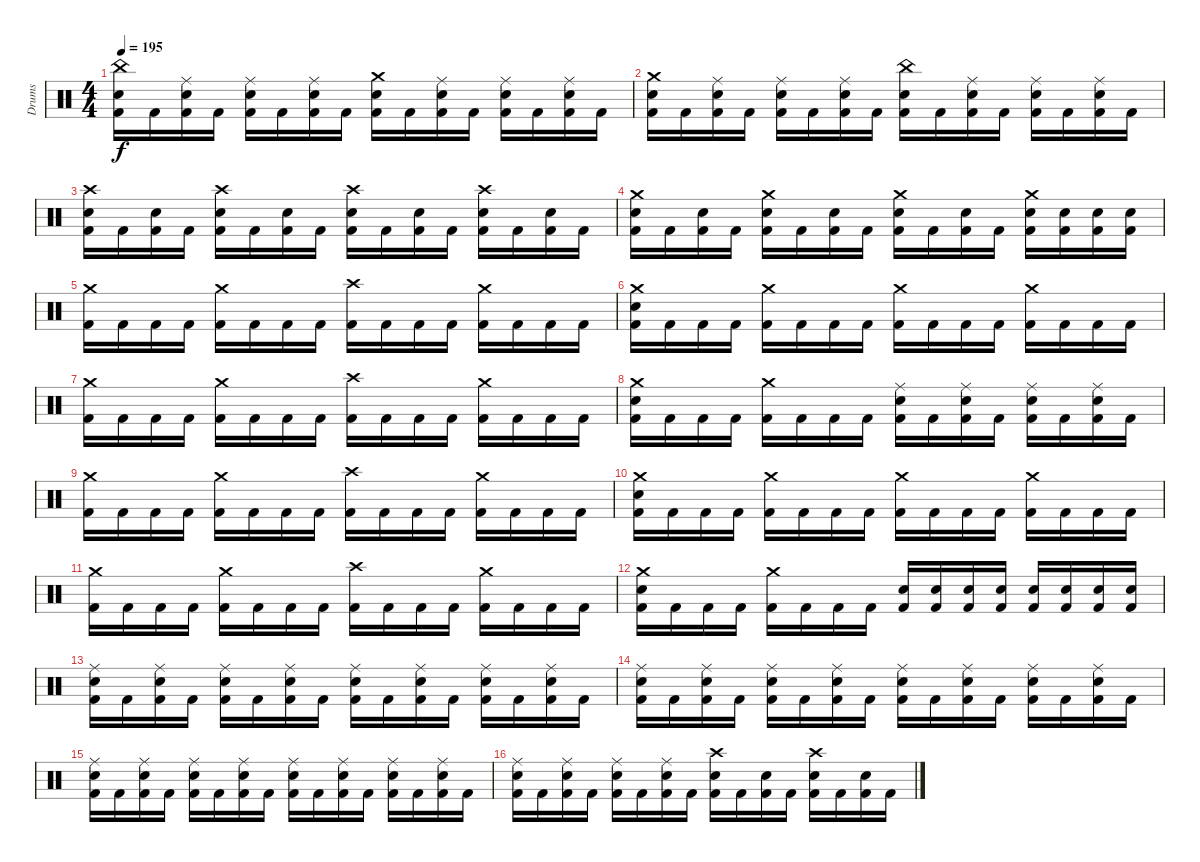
\track ("Drums" "Drums") {instrument percussion}
\staff {score}
\articulation defaults
\ts (4 4)
\tempo 195
\clef neutral
\ks c
("China (hit)" "Kick (hit) 2" "Electric Snare (hit)").16{dy f} "Kick (hit) 2".16 ("Ride (middle)" "Kick (hit) 2" "Electric Snare (hit)").16 "Kick (hit) 2".16 ("Ride (middle)" "Kick (hit) 2" "Electric Snare (hit)").16 "Kick (hit) 2".16 ("Ride (middle)" "Kick (hit) 2" "Electric Snare (hit)").16 "Kick (hit) 2".16 ("Crash medium (hit)" "Kick (hit) 2" "Electric Snare (hit)").16 "Kick (hit) 2".16 ("Ride (middle)" "Kick (hit) 2" "Electric Snare (hit)").16 "Kick (hit) 2".16 ("Ride (middle)" "Kick (hit) 2" "Electric Snare (hit)").16 "Kick (hit) 2".16 ("Ride (middle)" "Kick (hit) 2" "Electric Snare (hit)").16 "Kick (hit) 2".16 |
("Crash medium (hit)" "Kick (hit) 2" "Electric Snare (hit)").16 "Kick (hit) 2".16 ("Ride (middle)" "Kick (hit) 2" "Electric Snare (hit)").16 "Kick (hit) 2".16 ("Ride (middle)" "Kick (hit) 2" "Electric Snare (hit)").16 "Kick (hit) 2".16 ("Ride (middle)" "Kick (hit) 2" "Electric Snare (hit)").16 "Kick (hit) 2".16 ("China (hit)" "Kick (hit) 2" "Electric Snare (hit)").16 "Kick (hit) 2".16 ("Ride (middle)" "Kick (hit) 2" "Electric Snare (hit)").16 "Kick (hit) 2".16 ("Ride (middle)" "Kick (hit) 2" "Electric Snare (hit)").16 "Kick (hit) 2".16 ("Ride (middle)" "Kick (hit) 2" "Electric Snare (hit)").16 "Kick (hit) 2".16 |
("Crash high (hit)" "Kick (hit) 2" "Electric Snare (hit)").16 "Kick (hit) 2".16 ("Kick (hit) 2" "Electric Snare (hit)").16 "Kick (hit) 2".16 ("Crash high (hit)" "Kick (hit) 2" "Electric Snare (hit)").16 "Kick (hit) 2".16 ("Kick (hit) 2" "Electric Snare (hit)").16 "Kick (hit) 2".16 ("Crash high (hit)" "Kick (hit) 2" "Electric Snare (hit)").16 "Kick (hit) 2".16 ("Kick (hit) 2" "Electric Snare (hit)").16 "Kick (hit) 2".16 ("Crash high (hit)" "Kick (hit) 2" "Electric Snare (hit)").16 "Kick (hit) 2".16 ("Kick (hit) 2" "Electric Snare (hit)").16 "Kick (hit) 2".16 |
("Crash medium (hit)" "Kick (hit) 2" "Electric Snare (hit)").16 "Kick (hit) 2".16 ("Kick (hit) 2" "Electric Snare (hit)").16 "Kick (hit) 2".16 ("Crash medium (hit)" "Kick (hit) 2" "Electric Snare (hit)").16 "Kick (hit) 2".16 ("Kick (hit) 2" "Electric Snare (hit)").16 "Kick (hit) 2".16 ("Crash medium (hit)" "Kick (hit) 2" "Electric Snare (hit)").16 "Kick (hit) 2".16 ("Kick (hit) 2" "Electric Snare (hit)").16 "Kick (hit) 2".16 ("Crash medium (hit)" "Kick (hit) 2" "Electric Snare (hit)").16 ("Kick (hit) 2" "Electric Snare (hit)").16 ("Kick (hit) 2" "Electric Snare (hit)").16 ("Kick (hit) 2" "Electric Snare (hit)").16 |
("Crash medium (hit)" "Kick (hit) 2").16 "Kick (hit) 2".16 "Kick (hit) 2".16 "Kick (hit) 2".16 ("Crash medium (hit)" "Kick (hit) 2").16 "Kick (hit) 2".16 "Kick (hit) 2".16 "Kick (hit) 2".16 ("Crash high (hit)" "Kick (hit) 2").16 "Kick (hit) 2".16 "Kick (hit) 2".16 "Kick (hit) 2".16 ("Crash medium (hit)" "Kick (hit) 2").16 "Kick (hit) 2".16 "Kick (hit) 2".16 "Kick (hit) 2".16 |
("Crash medium (hit)" "Kick (hit) 2" "Electric Snare (hit)").16 "Kick (hit) 2".16 "Kick (hit) 2".16 "Kick (hit) 2".16 ("Crash medium (hit)" "Kick (hit) 2").16 "Kick (hit) 2".16 "Kick (hit) 2".16 "Kick (hit) 2".16 ("Crash medium (hit)" "Kick (hit) 2").16 "Kick (hit) 2".16 "Kick (hit) 2".16 "Kick (hit) 2".16 ("Crash medium (hit)" "Kick (hit) 2").16 "Kick (hit) 2".16 "Kick (hit) 2".16 "Kick (hit) 2".16 |
("Crash medium (hit)" "Kick (hit) 2").16 "Kick (hit) 2".16 "Kick (hit) 2".16 "Kick (hit) 2".16 ("Crash medium (hit)" "Kick (hit) 2").16 "Kick (hit) 2".16 "Kick (hit) 2".16 "Kick (hit) 2".16 ("Crash high (hit)" "Kick (hit) 2").16 "Kick (hit) 2".16 "Kick (hit) 2".16 "Kick (hit) 2".16 ("Crash medium (hit)" "Kick (hit) 2").16 "Kick (hit) 2".16 "Kick (hit) 2".16 "Kick (hit) 2".16 |
("Crash medium (hit)" "Kick (hit) 2" "Electric Snare (hit)").16 "Kick (hit) 2".16 "Kick (hit) 2".16 "Kick (hit) 2".16 ("Crash medium (hit)" "Kick (hit) 2").16 "Kick (hit) 2".16 "Kick (hit) 2".16 "Kick (hit) 2".16 ("Ride (middle)" "Kick (hit) 2" "Electric Snare (hit)").16 "Kick (hit) 2".16 ("Ride (middle)" "Kick (hit) 2" "Electric Snare (hit)").16 "Kick (hit) 2".16 ("Ride (middle)" "Kick (hit) 2" "Electric Snare (hit)").16 "Kick (hit) 2".16 ("Ride (middle)" "Kick (hit) 2" "Electric Snare (hit)").16 "Kick (hit) 2".16 |
("Crash medium (hit)" "Kick (hit) 2").16 "Kick (hit) 2".16 "Kick (hit) 2".16 "Kick (hit) 2".16 ("Crash medium (hit)" "Kick (hit) 2").16 "Kick (hit) 2".16 "Kick (hit) 2".16 "Kick (hit) 2".16 ("Crash high (hit)" "Kick (hit) 2").16 "Kick (hit) 2".16 "Kick (hit) 2".16 "Kick (hit) 2".16 ("Crash medium (hit)" "Kick (hit) 2").16 "Kick (hit) 2".16 "Kick (hit) 2".16 "Kick (hit) 2".16 |
("Crash medium (hit)" "Kick (hit) 2" "Electric Snare (hit)").16 "Kick (hit) 2".16 "Kick (hit) 2".16 "Kick (hit) 2".16 ("Crash medium (hit)" "Kick (hit) 2").16 "Kick (hit) 2".16 "Kick (hit) 2".16 "Kick (hit) 2".16 ("Crash medium (hit)" "Kick (hit) 2").16 "Kick (hit) 2".16 "Kick (hit) 2".16 "Kick (hit) 2".16 ("Crash medium (hit)" "Kick (hit) 2").16 "Kick (hit) 2".16 "Kick (hit) 2".16 "Kick (hit) 2".16 |
("Crash medium (hit)" "Kick (hit) 2").16 "Kick (hit) 2".16 "Kick (hit) 2".16 "Kick (hit) 2".16 ("Crash medium (hit)" "Kick (hit) 2").16 "Kick (hit) 2".16 "Kick (hit) 2".16 "Kick (hit) 2".16 ("Crash high (hit)" "Kick (hit) 2").16 "Kick (hit) 2".16 "Kick (hit) 2".16 "Kick (hit) 2".16 ("Crash medium (hit)" "Kick (hit) 2").16 "Kick (hit) 2".16 "Kick (hit) 2".16 "Kick (hit) 2".16 |
("Crash medium (hit)" "Kick (hit) 2" "Electric Snare (hit)").16 "Kick (hit) 2".16 "Kick (hit) 2".16 "Kick (hit) 2".16 ("Crash medium (hit)" "Kick (hit) 2").16 "Kick (hit) 2".16 "Kick (hit) 2".16 "Kick (hit) 2".16 ("Kick (hit) 2" "Electric Snare (hit)").16 ("Kick (hit) 2" "Electric Snare (hit)").16 ("Kick (hit) 2" "Electric Snare (hit)").16 ("Kick (hit) 2" "Electric Snare (hit)").16 ("Kick (hit) 2" "Electric Snare (hit)").16 ("Kick (hit) 2" "Electric Snare (hit)").16 ("Kick (hit) 2" "Electric Snare (hit)").16 ("Kick (hit) 2" "Electric Snare (hit)").16 |
("Ride (middle)" "Kick (hit) 2" "Electric Snare (hit)").16 "Kick (hit) 2".16 ("Ride (middle)" "Kick (hit) 2" "Electric Snare (hit)").16 "Kick (hit) 2".16 ("Ride (middle)" "Kick (hit) 2" "Electric Snare (hit)").16 "Kick (hit) 2".16 ("Ride (middle)" "Kick (hit) 2" "Electric Snare (hit)").16 "Kick (hit) 2".16 ("Ride (middle)" "Kick (hit) 2" "Electric Snare (hit)").16 "Kick (hit) 2".16 ("Ride (middle)" "Kick (hit) 2" "Electric Snare (hit)").16 "Kick (hit) 2".16 ("Ride (middle)" "Kick (hit) 2" "Electric Snare (hit)").16 "Kick (hit) 2".16 ("Ride (middle)" "Kick (hit) 2" "Electric Snare (hit)").16 "Kick (hit) 2".16 |
("Ride (middle)" "Kick (hit) 2" "Electric Snare (hit)").16 "Kick (hit) 2".16 ("Ride (middle)" "Kick (hit) 2" "Electric Snare (hit)").16 "Kick (hit) 2".16 ("Ride (middle)" "Kick (hit) 2" "Electric Snare (hit)").16 "Kick (hit) 2".16 ("Ride (middle)" "Kick (hit) 2" "Electric Snare (hit)").16 "Kick (hit) 2".16 ("Ride (middle)" "Kick (hit) 2" "Electric Snare (hit)").16 "Kick (hit) 2".16 ("Ride (middle)" "Kick (hit) 2" "Electric Snare (hit)").16 "Kick (hit) 2".16 ("Ride (middle)" "Kick (hit) 2" "Electric Snare (hit)").16 "Kick (hit) 2".16 ("Ride (middle)" "Kick (hit) 2" "Electric Snare (hit)").16 "Kick (hit) 2".16 |
("Ride (middle)" "Kick (hit) 2" "Electric Snare (hit)").16 "Kick (hit) 2".16 ("Ride (middle)" "Kick (hit) 2" "Electric Snare (hit)").16 "Kick (hit) 2".16 ("Ride (middle)" "Kick (hit) 2" "Electric Snare (hit)").16 "Kick (hit) 2".16 ("Ride (middle)" "Kick (hit) 2" "Electric Snare (hit)").16 "Kick (hit) 2".16 ("Ride (middle)" "Kick (hit) 2" "Electric Snare (hit)").16 "Kick (hit) 2".16 ("Ride (middle)" "Kick (hit) 2" "Electric Snare (hit)").16 "Kick (hit) 2".16 ("Ride (middle)" "Kick (hit) 2" "Electric Snare (hit)").16 "Kick (hit) 2".16 ("Ride (middle)" "Kick (hit) 2" "Electric Snare (hit)").16 "Kick (hit) 2".16 |
("Ride (middle)" "Kick (hit) 2" "Electric Snare (hit)").16 "Kick (hit) 2".16 ("Ride (middle)" "Kick (hit) 2" "Electric Snare (hit)").16 "Kick (hit) 2".16 ("Ride (middle)" "Kick (hit) 2" "Electric Snare (hit)").16 "Kick (hit) 2".16 ("Ride (middle)" "Kick (hit) 2" "Electric Snare (hit)").16 "Kick (hit) 2".16 ("Crash high (hit)" "Kick (hit) 2" "Electric Snare (hit)").16 "Kick (hit) 2".16 ("Kick (hit) 2" "Electric Snare (hit)").16 "Kick (hit) 2".16 ("Crash high (hit)" "Kick (hit) 2" "Electric Snare (hit)").16 "Kick (hit) 2".16 ("Kick (hit) 2" "Electric Snare (hit)").16 "Kick (hit) 2".16
